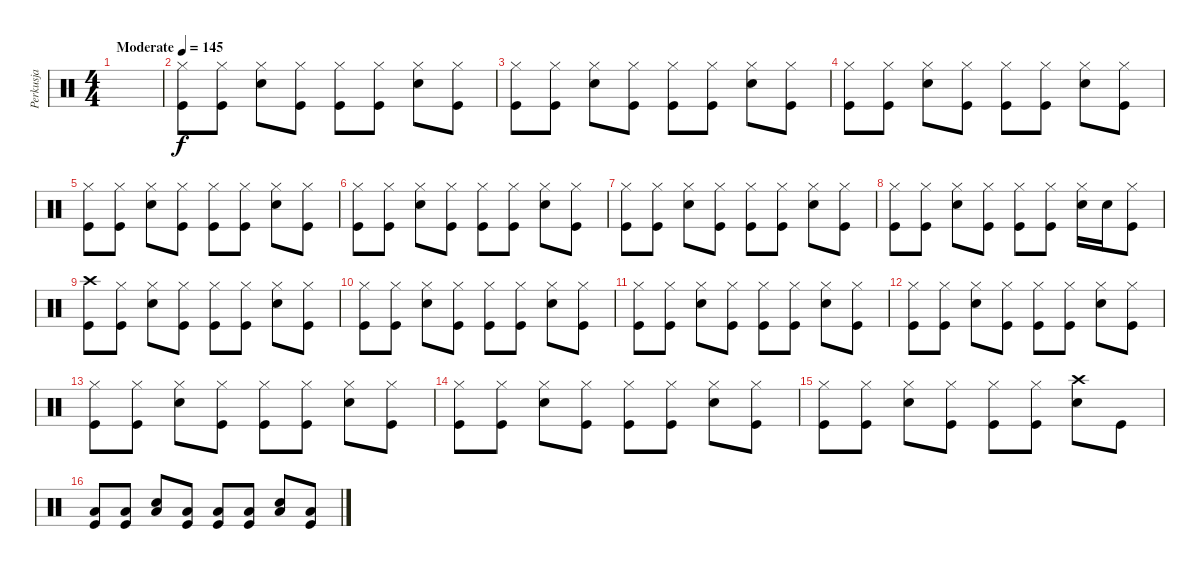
\track ("Perkusja" "Perkusja") {instrument percussion}
\staff {score}
\articulation defaults
\ts (4 4)
\tempo (145 "Moderate")
\clef neutral
\ks c
|
("Hi-Hat (closed)" "Kick (hit)").8 ("Hi-Hat (closed)" "Kick (hit)").8 ("Hi-Hat (closed)" "Snare (hit) 2").8 ("Hi-Hat (closed)" "Kick (hit)").8 ("Hi-Hat (closed)" "Kick (hit)").8 ("Hi-Hat (closed)" "Kick (hit)").8 ("Hi-Hat (closed)" "Snare (hit) 2").8 ("Hi-Hat (closed)" "Kick (hit)").8 |
("Hi-Hat (closed)" "Kick (hit)").8 ("Hi-Hat (closed)" "Kick (hit)").8 ("Hi-Hat (closed)" "Snare (hit) 2").8 ("Hi-Hat (closed)" "Kick (hit)").8 ("Hi-Hat (closed)" "Kick (hit)").8 ("Hi-Hat (closed)" "Kick (hit)").8 ("Hi-Hat (closed)" "Snare (hit) 2").8 ("Hi-Hat (closed)" "Kick (hit)").8 |
("Hi-Hat (closed)" "Kick (hit)").8 ("Hi-Hat (closed)" "Kick (hit)").8 ("Hi-Hat (closed)" "Snare (hit) 2").8 ("Hi-Hat (closed)" "Kick (hit)").8 ("Hi-Hat (closed)" "Kick (hit)").8 ("Hi-Hat (closed)" "Kick (hit)").8 ("Hi-Hat (closed)" "Snare (hit) 2").8 ("Hi-Hat (closed)" "Kick (hit)").8 |
("Hi-Hat (closed)" "Kick (hit)").8 ("Hi-Hat (closed)" "Kick (hit)").8 ("Hi-Hat (closed)" "Snare (hit) 2").8 ("Hi-Hat (closed)" "Kick (hit)").8 ("Hi-Hat (closed)" "Kick (hit)").8 ("Hi-Hat (closed)" "Kick (hit)").8 ("Hi-Hat (closed)" "Snare (hit) 2").8 ("Hi-Hat (closed)" "Kick (hit)").8 |
("Hi-Hat (closed)" "Kick (hit)").8 ("Hi-Hat (closed)" "Kick (hit)").8 ("Hi-Hat (closed)" "Snare (hit) 2").8 ("Hi-Hat (closed)" "Kick (hit)").8 ("Hi-Hat (closed)" "Kick (hit)").8 ("Hi-Hat (closed)" "Kick (hit)").8 ("Hi-Hat (closed)" "Snare (hit) 2").8 ("Hi-Hat (closed)" "Kick (hit)").8 |
("Hi-Hat (closed)" "Kick (hit)").8 ("Hi-Hat (closed)" "Kick (hit)").8 ("Hi-Hat (closed)" "Snare (hit) 2").8 ("Hi-Hat (closed)" "Kick (hit)").8 ("Hi-Hat (closed)" "Kick (hit)").8 ("Hi-Hat (closed)" "Kick (hit)").8 ("Hi-Hat (closed)" "Snare (hit) 2").8 ("Hi-Hat (closed)" "Kick (hit)").8 |
("Hi-Hat (closed)" "Kick (hit)").8 ("Hi-Hat (closed)" "Kick (hit)").8 ("Hi-Hat (closed)" "Snare (hit) 2").8 ("Hi-Hat (closed)" "Kick (hit)").8 ("Hi-Hat (closed)" "Kick (hit)").8 ("Hi-Hat (closed)" "Kick (hit)").8 ("Hi-Hat (closed)" "Snare (hit) 2").16 "Snare (hit) 2".16 ("Hi-Hat (closed)" "Kick (hit)").8 |
("Crash high (hit)" "Kick (hit)").8 ("Hi-Hat (closed)" "Kick (hit)").8 ("Hi-Hat (closed)" "Snare (hit) 2").8 ("Hi-Hat (closed)" "Kick (hit)").8 ("Hi-Hat (closed)" "Kick (hit)").8 ("Hi-Hat (closed)" "Kick (hit)").8 ("Hi-Hat (closed)" "Snare (hit) 2").8 ("Hi-Hat (closed)" "Kick (hit)").8 |
("Hi-Hat (closed)" "Kick (hit)").8 ("Hi-Hat (closed)" "Kick (hit)").8 ("Hi-Hat (closed)" "Snare (hit) 2").8 ("Hi-Hat (closed)" "Kick (hit)").8 ("Hi-Hat (closed)" "Kick (hit)").8 ("Hi-Hat (closed)" "Kick (hit)").8 ("Hi-Hat (closed)" "Snare (hit) 2").8 ("Hi-Hat (closed)" "Kick (hit)").8 |
("Hi-Hat (closed)" "Kick (hit)").8 ("Hi-Hat (closed)" "Kick (hit)").8 ("Hi-Hat (closed)" "Snare (hit) 2").8 ("Hi-Hat (closed)" "Kick (hit)").8 ("Hi-Hat (closed)" "Kick (hit)").8 ("Hi-Hat (closed)" "Kick (hit)").8 ("Hi-Hat (closed)" "Snare (hit) 2").8 ("Hi-Hat (closed)" "Kick (hit)").8 |
("Hi-Hat (closed)" "Kick (hit)").8 ("Hi-Hat (closed)" "Kick (hit)").8 ("Hi-Hat (closed)" "Snare (hit) 2").8 ("Hi-Hat (closed)" "Kick (hit)").8 ("Hi-Hat (closed)" "Kick (hit)").8 ("Hi-Hat (closed)" "Kick (hit)").8 ("Hi-Hat (closed)" "Snare (hit) 2").8 ("Hi-Hat (closed)" "Kick (hit)").8 |
("Hi-Hat (closed)" "Kick (hit)").8 ("Hi-Hat (closed)" "Kick (hit)").8 ("Hi-Hat (closed)" "Snare (hit) 2").8 ("Hi-Hat (closed)" "Kick (hit)").8 ("Hi-Hat (closed)" "Kick (hit)").8 ("Hi-Hat (closed)" "Kick (hit)").8 ("Hi-Hat (closed)" "Snare (hit) 2").8 ("Hi-Hat (closed)" "Kick (hit)").8 |
("Hi-Hat (closed)" "Kick (hit)").8 ("Hi-Hat (closed)" "Kick (hit)").8 ("Hi-Hat (closed)" "Snare (hit) 2").8 ("Hi-Hat (closed)" "Kick (hit)").8 ("Hi-Hat (closed)" "Kick (hit)").8 ("Hi-Hat (closed)" "Kick (hit)").8 ("Hi-Hat (closed)" "Snare (hit) 2").8 ("Hi-Hat (closed)" "Kick (hit)").8 |
("Hi-Hat (closed)" "Kick (hit)").8 ("Hi-Hat (closed)" "Kick (hit)").8 ("Hi-Hat (closed)" "Snare (hit) 2").8 ("Hi-Hat (closed)" "Kick (hit)").8 ("Hi-Hat (closed)" "Kick (hit)").8 ("Hi-Hat (closed)" "Kick (hit)").8 ("Crash high (hit)" "Snare (hit) 2").8 "Kick (hit)".8 |
("Low Floor Tom (hit)" "Kick (hit)").8 ("Low Floor Tom (hit)" "Kick (hit)").8 ("Low Floor Tom (hit)" "Snare (hit) 2").8 ("Low Floor Tom (hit)" "Kick (hit)").8 ("Low Floor Tom (hit)" "Kick (hit)").8 ("Low Floor Tom (hit)" "Kick (hit)").8 ("Low Floor Tom (hit)" "Snare (hit) 2").8 ("Low Floor Tom (hit)" "Kick (hit)").8
